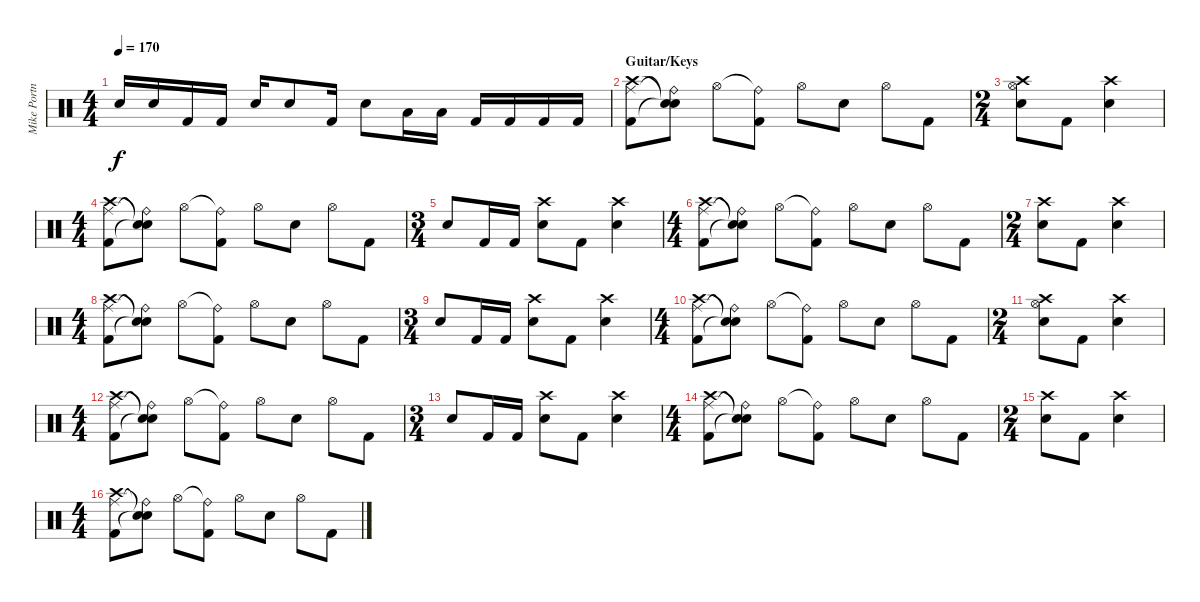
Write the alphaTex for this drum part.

\track ("Mike Portnoy Drums/Percussion" "Mike Portn") {instrument percussion}
\staff {score}
\articulation defaults
\ts (4 4)
\tempo 170
\clef neutral
\ks c "Snare (hit) 2".16{dy f} "Snare (hit) 2".16 "Kick (hit) 2".16 "Kick (hit) 2".16 "Snare (hit) 2".16 "Snare (hit) 2".8 "Kick (hit) 2".16 "Snare (hit) 2".8 "Low Tom (hit)".16 "Low Floor Tom (hit)".16 "Kick (hit) 2".16 "Kick (hit) 2".16 "Kick (hit) 2".16 "Kick (hit) 2".16
|
\section ("" "Guitar/Keys")
("Ride (middle)" "Crash high (hit)" "Kick (hit) 2").8 ("Ride (bell)"{t} "Snare (hit)"{t} "Snare (hit)"{t}).8 "Hi-Hat (open)".8 ("Ride (bell)"{t} "Kick (hit) 2").8 "Hi-Hat (open)".8 "Snare (hit) 2".8 "Hi-Hat (open)".8 "Kick (hit) 2".8 |
\ts (2 4)
("Crash high (hit)" "Hi-Hat (open)" "Snare (hit) 2").8 "Kick (hit) 2".8 ("Crash high (hit)" "Snare (hit) 2").4 |
\ts (4 4)
("Ride (middle)" "Crash high (hit)" "Kick (hit) 2").8 ("Ride (bell)"{t} "Snare (hit)"{t} "Snare (hit)"{t}).8 "Hi-Hat (open)".8 ("Ride (bell)"{t} "Kick (hit) 2").8 "Hi-Hat (open)".8 "Snare (hit) 2".8 "Hi-Hat (open)".8 "Kick (hit) 2".8 |
\ts (3 4)
"Snare (hit) 2".8 "Kick (hit) 2".16 "Kick (hit) 2".16 ("Crash high (hit)" "Snare (hit) 2").8 "Kick (hit) 2".8 ("Crash high (hit)" "Snare (hit) 2").4 |
\ts (4 4)
("Ride (middle)" "Crash high (hit)" "Kick (hit) 2").8 ("Ride (bell)"{t} "Snare (hit)"{t} "Snare (hit)"{t}).8 "Hi-Hat (open)".8 ("Ride (bell)"{t} "Kick (hit) 2").8 "Hi-Hat (open)".8 "Snare (hit) 2".8 "Hi-Hat (open)".8 "Kick (hit) 2".8 |
\ts (2 4)
("Crash high (hit)" "Snare (hit) 2").8 "Kick (hit) 2".8 ("Crash high (hit)" "Snare (hit) 2").4 |
\ts (4 4)
("Ride (middle)" "Crash high (hit)" "Kick (hit) 2").8 ("Ride (bell)"{t} "Snare (hit)"{t} "Snare (hit)"{t}).8 "Hi-Hat (open)".8 ("Ride (bell)"{t} "Kick (hit) 2").8 "Hi-Hat (open)".8 "Snare (hit) 2".8 "Hi-Hat (open)".8 "Kick (hit) 2".8 |
\ts (3 4)
"Snare (hit) 2".8 "Kick (hit) 2".16 "Kick (hit) 2".16 ("Crash high (hit)" "Snare (hit) 2").8 "Kick (hit) 2".8 ("Crash high (hit)" "Snare (hit) 2").4 |
\ts (4 4)
("Ride (middle)" "Crash high (hit)" "Kick (hit) 2").8 ("Ride (bell)"{t} "Snare (hit)"{t} "Snare (hit)"{t}).8 "Hi-Hat (open)".8 ("Ride (bell)"{t} "Kick (hit) 2").8 "Hi-Hat (open)".8 "Snare (hit) 2".8 "Hi-Hat (open)".8 "Kick (hit) 2".8 |
\ts (2 4)
("Crash high (hit)" "Hi-Hat (open)" "Snare (hit) 2").8 "Kick (hit) 2".8 ("Crash high (hit)" "Snare (hit) 2").4 |
\ts (4 4)
("Ride (middle)" "Crash high (hit)" "Kick (hit) 2").8 ("Ride (bell)"{t} "Snare (hit)"{t} "Snare (hit)"{t}).8 "Hi-Hat (open)".8 ("Ride (bell)"{t} "Kick (hit) 2").8 "Hi-Hat (open)".8 "Snare (hit) 2".8 "Hi-Hat (open)".8 "Kick (hit) 2".8 |
\ts (3 4)
"Snare (hit) 2".8 "Kick (hit) 2".16 "Kick (hit) 2".16 ("Crash high (hit)" "Snare (hit) 2").8 "Kick (hit) 2".8 ("Crash high (hit)" "Snare (hit) 2").4 |
\ts (4 4)
("Ride (middle)" "Crash high (hit)" "Kick (hit) 2").8 ("Ride (bell)"{t} "Snare (hit)"{t} "Snare (hit)"{t}).8 "Hi-Hat (open)".8 ("Ride (bell)"{t} "Kick (hit) 2").8 "Hi-Hat (open)".8 "Snare (hit) 2".8 "Hi-Hat (open)".8 "Kick (hit) 2".8 |
\ts (2 4)
("Crash high (hit)" "Snare (hit) 2").8 "Kick (hit) 2".8 ("Crash high (hit)" "Snare (hit) 2").4 |
\ts (4 4)
("Ride (middle)" "Crash high (hit)" "Kick (hit) 2").8 ("Ride (bell)"{t} "Snare (hit)"{t} "Snare (hit)"{t}).8 "Hi-Hat (open)".8 ("Ride (bell)"{t} "Kick (hit) 2").8 "Hi-Hat (open)".8 "Snare (hit) 2".8 "Hi-Hat (open)".8 "Kick (hit) 2".8
